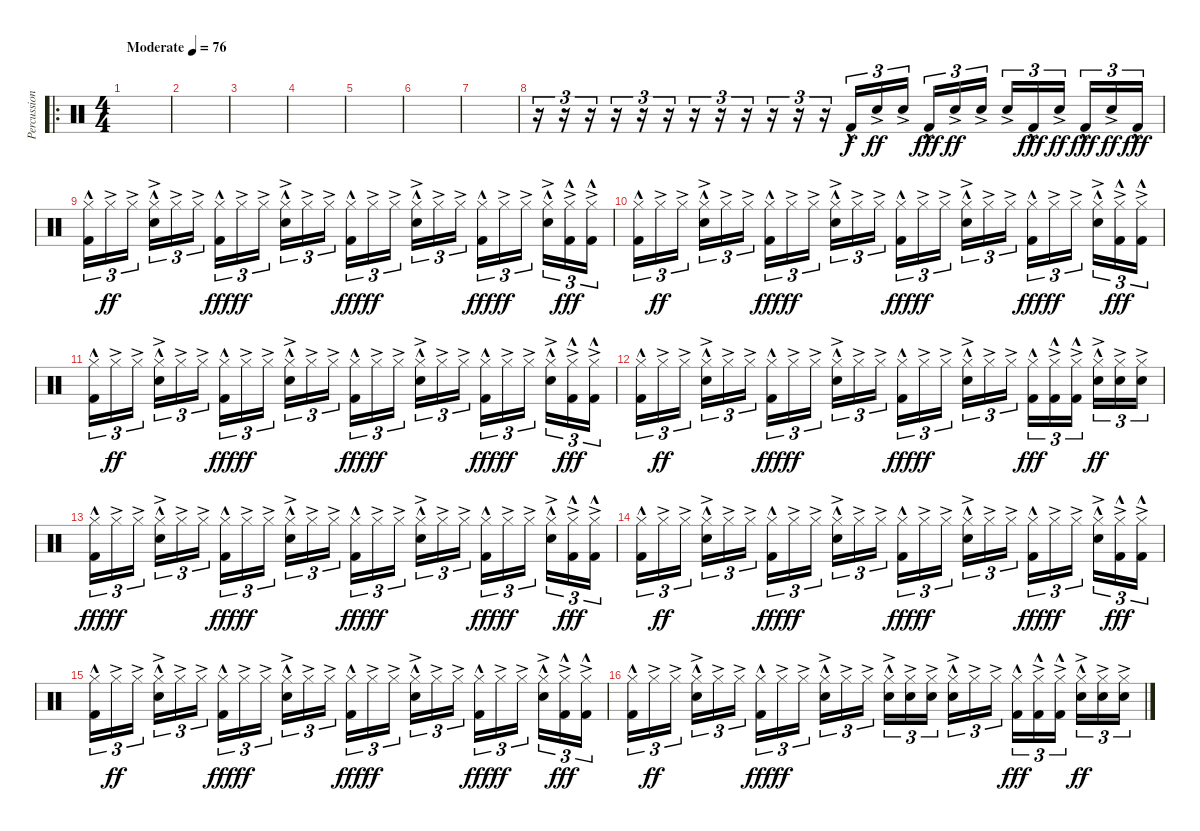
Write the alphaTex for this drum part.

\track ("Percussion" "Percussion") {instrument percussion}
\staff {score}
\articulation defaults
\ro
\ts (4 4)
\tempo (76 "Moderate")
\clef neutral
\ks c
|
|
|
|
|
|
|
r.16{tu (3 2)} r.16{tu (3 2)} r.16{tu (3 2)} r.16{tu (3 2)} r.16{tu (3 2)} r.16{tu (3 2)} r.16{tu (3 2)} r.16{tu (3 2)} r.16{tu (3 2)} r.16{tu (3 2)} r.16{tu (3 2)} r.16{tu (3 2)} "Kick (hit) 2"{hac}.16{tu (3 2)} "Snare (hit) 2"{ac}.16{tu (3 2) dy ff} "Snare (hit) 2"{ac}.16{tu (3 2) beam splitsecondary} "Kick (hit) 2"{hac}.16{tu (3 2) dy fff} "Snare (hit) 2"{ac}.16{tu (3 2) dy ff} "Snare (hit) 2"{ac}.16{tu (3 2)} "Snare (hit) 2"{ac}.16{tu (3 2)} "Kick (hit) 2"{hac}.16{tu (3 2) dy fff} "Snare (hit) 2"{ac}.16{tu (3 2) dy ff beam splitsecondary} "Kick (hit) 2"{hac}.16{tu (3 2) dy fff} "Snare (hit) 2"{ac}.16{tu (3 2) dy ff} "Kick (hit) 2"{hac}.16{tu (3 2) dy fff} |
("Hi-Hat (closed)"{hac} "Kick (hit) 2"{hac}).16{tu (3 2)} "Hi-Hat (closed)"{ac}.16{tu (3 2) dy ff} "Hi-Hat (closed)"{ac}.16{tu (3 2) beam splitsecondary} ("Hi-Hat (closed)"{hac} "Snare (hit) 2"{ac}).16{tu (3 2)} "Hi-Hat (closed)"{ac}.16{tu (3 2)} "Hi-Hat (closed)"{ac}.16{tu (3 2)} ("Hi-Hat (closed)"{hac} "Kick (hit) 2"{hac}).16{tu (3 2) dy fff} "Hi-Hat (closed)"{ac}.16{tu (3 2) dy ff} "Hi-Hat (closed)"{ac}.16{tu (3 2) beam splitsecondary} ("Hi-Hat (closed)"{hac} "Snare (hit) 2"{ac}).16{tu (3 2)} "Hi-Hat (closed)"{ac}.16{tu (3 2)} "Hi-Hat (closed)"{ac}.16{tu (3 2)} ("Hi-Hat (closed)"{hac} "Kick (hit) 2"{hac}).16{tu (3 2) dy fff} "Hi-Hat (closed)"{ac}.16{tu (3 2) dy ff} "Hi-Hat (closed)"{ac}.16{tu (3 2) beam splitsecondary} ("Hi-Hat (closed)"{hac} "Snare (hit) 2"{ac}).16{tu (3 2)} "Hi-Hat (closed)"{ac}.16{tu (3 2)} "Hi-Hat (closed)"{ac}.16{tu (3 2)} ("Hi-Hat (closed)"{hac} "Kick (hit) 2"{hac}).16{tu (3 2) dy fff} "Hi-Hat (closed)"{ac}.16{tu (3 2) dy ff} "Hi-Hat (closed)"{ac}.16{tu (3 2) beam splitsecondary} ("Hi-Hat (closed)"{hac} "Snare (hit) 2"{ac}).16{tu (3 2)} ("Hi-Hat (closed)"{ac} "Kick (hit) 2"{hac}).16{tu (3 2) dy fff} ("Hi-Hat (closed)"{ac} "Kick (hit) 2"{hac}).16{tu (3 2)} |
("Hi-Hat (closed)"{hac} "Kick (hit) 2"{hac}).16{tu (3 2)} "Hi-Hat (closed)"{ac}.16{tu (3 2) dy ff} "Hi-Hat (closed)"{ac}.16{tu (3 2) beam splitsecondary} ("Hi-Hat (closed)"{hac} "Snare (hit) 2"{ac}).16{tu (3 2)} "Hi-Hat (closed)"{ac}.16{tu (3 2)} "Hi-Hat (closed)"{ac}.16{tu (3 2)} ("Hi-Hat (closed)"{hac} "Kick (hit) 2"{hac}).16{tu (3 2) dy fff} "Hi-Hat (closed)"{ac}.16{tu (3 2) dy ff} "Hi-Hat (closed)"{ac}.16{tu (3 2) beam splitsecondary} ("Hi-Hat (closed)"{hac} "Snare (hit) 2"{ac}).16{tu (3 2)} "Hi-Hat (closed)"{ac}.16{tu (3 2)} "Hi-Hat (closed)"{ac}.16{tu (3 2)} ("Hi-Hat (closed)"{hac} "Kick (hit) 2"{hac}).16{tu (3 2) dy fff} "Hi-Hat (closed)"{ac}.16{tu (3 2) dy ff} "Hi-Hat (closed)"{ac}.16{tu (3 2) beam splitsecondary} ("Hi-Hat (closed)"{hac} "Snare (hit) 2"{ac}).16{tu (3 2)} "Hi-Hat (closed)"{ac}.16{tu (3 2)} "Hi-Hat (closed)"{ac}.16{tu (3 2)} ("Hi-Hat (closed)"{hac} "Kick (hit) 2"{hac}).16{tu (3 2) dy fff} "Hi-Hat (closed)"{ac}.16{tu (3 2) dy ff} "Hi-Hat (closed)"{ac}.16{tu (3 2) beam splitsecondary} ("Hi-Hat (closed)"{hac} "Snare (hit) 2"{ac}).16{tu (3 2)} ("Hi-Hat (closed)"{ac} "Kick (hit) 2"{hac}).16{tu (3 2) dy fff} ("Hi-Hat (closed)"{ac} "Kick (hit) 2"{hac}).16{tu (3 2)} |
("Hi-Hat (closed)"{hac} "Kick (hit) 2"{hac}).16{tu (3 2)} "Hi-Hat (closed)"{ac}.16{tu (3 2) dy ff} "Hi-Hat (closed)"{ac}.16{tu (3 2) beam splitsecondary} ("Hi-Hat (closed)"{hac} "Snare (hit) 2"{ac}).16{tu (3 2)} "Hi-Hat (closed)"{ac}.16{tu (3 2)} "Hi-Hat (closed)"{ac}.16{tu (3 2)} ("Hi-Hat (closed)"{hac} "Kick (hit) 2"{hac}).16{tu (3 2) dy fff} "Hi-Hat (closed)"{ac}.16{tu (3 2) dy ff} "Hi-Hat (closed)"{ac}.16{tu (3 2) beam splitsecondary} ("Hi-Hat (closed)"{hac} "Snare (hit) 2"{ac}).16{tu (3 2)} "Hi-Hat (closed)"{ac}.16{tu (3 2)} "Hi-Hat (closed)"{ac}.16{tu (3 2)} ("Hi-Hat (closed)"{hac} "Kick (hit) 2"{hac}).16{tu (3 2) dy fff} "Hi-Hat (closed)"{ac}.16{tu (3 2) dy ff} "Hi-Hat (closed)"{ac}.16{tu (3 2) beam splitsecondary} ("Hi-Hat (closed)"{hac} "Snare (hit) 2"{ac}).16{tu (3 2)} "Hi-Hat (closed)"{ac}.16{tu (3 2)} "Hi-Hat (closed)"{ac}.16{tu (3 2)} ("Hi-Hat (closed)"{hac} "Kick (hit) 2"{hac}).16{tu (3 2) dy fff} "Hi-Hat (closed)"{ac}.16{tu (3 2) dy ff} "Hi-Hat (closed)"{ac}.16{tu (3 2) beam splitsecondary} ("Hi-Hat (closed)"{hac} "Snare (hit) 2"{ac}).16{tu (3 2)} ("Hi-Hat (closed)"{ac} "Kick (hit) 2"{hac}).16{tu (3 2) dy fff} ("Hi-Hat (closed)"{ac} "Kick (hit) 2"{hac}).16{tu (3 2)} |
("Hi-Hat (closed)"{hac} "Kick (hit) 2"{hac}).16{tu (3 2)} "Hi-Hat (closed)"{ac}.16{tu (3 2) dy ff} "Hi-Hat (closed)"{ac}.16{tu (3 2) beam splitsecondary} ("Hi-Hat (closed)"{hac} "Snare (hit) 2"{ac}).16{tu (3 2)} "Hi-Hat (closed)"{ac}.16{tu (3 2)} "Hi-Hat (closed)"{ac}.16{tu (3 2)} ("Hi-Hat (closed)"{hac} "Kick (hit) 2"{hac}).16{tu (3 2) dy fff} "Hi-Hat (closed)"{ac}.16{tu (3 2) dy ff} "Hi-Hat (closed)"{ac}.16{tu (3 2) beam splitsecondary} ("Hi-Hat (closed)"{hac} "Snare (hit) 2"{ac}).16{tu (3 2)} "Hi-Hat (closed)"{ac}.16{tu (3 2)} "Hi-Hat (closed)"{ac}.16{tu (3 2)} ("Hi-Hat (closed)"{hac} "Kick (hit) 2"{hac}).16{tu (3 2) dy fff} "Hi-Hat (closed)"{ac}.16{tu (3 2) dy ff} "Hi-Hat (closed)"{ac}.16{tu (3 2) beam splitsecondary} ("Hi-Hat (closed)"{hac} "Snare (hit) 2"{ac}).16{tu (3 2)} "Hi-Hat (closed)"{ac}.16{tu (3 2)} "Hi-Hat (closed)"{ac}.16{tu (3 2)} ("Hi-Hat (closed)"{hac} "Kick (hit) 2"{hac}).16{tu (3 2) dy fff} ("Hi-Hat (closed)"{ac} "Kick (hit) 2"{hac}).16{tu (3 2)} ("Hi-Hat (closed)"{ac} "Kick (hit) 2"{hac}).16{tu (3 2) beam splitsecondary} ("Hi-Hat (closed)"{hac} "Snare (hit) 2"{ac}).16{tu (3 2) dy ff} ("Hi-Hat (closed)"{ac} "Snare (hit) 2"{ac}).16{tu (3 2)} ("Hi-Hat (closed)"{ac} "Snare (hit) 2"{ac}).16{tu (3 2)} |
("Hi-Hat (closed)"{hac} "Kick (hit) 2"{hac}).16{tu (3 2) dy fff} "Hi-Hat (closed)"{ac}.16{tu (3 2) dy ff} "Hi-Hat (closed)"{ac}.16{tu (3 2) beam splitsecondary} ("Hi-Hat (closed)"{hac} "Snare (hit) 2"{ac}).16{tu (3 2)} "Hi-Hat (closed)"{ac}.16{tu (3 2)} "Hi-Hat (closed)"{ac}.16{tu (3 2)} ("Hi-Hat (closed)"{hac} "Kick (hit) 2"{hac}).16{tu (3 2) dy fff} "Hi-Hat (closed)"{ac}.16{tu (3 2) dy ff} "Hi-Hat (closed)"{ac}.16{tu (3 2) beam splitsecondary} ("Hi-Hat (closed)"{hac} "Snare (hit) 2"{ac}).16{tu (3 2)} "Hi-Hat (closed)"{ac}.16{tu (3 2)} "Hi-Hat (closed)"{ac}.16{tu (3 2)} ("Hi-Hat (closed)"{hac} "Kick (hit) 2"{hac}).16{tu (3 2) dy fff} "Hi-Hat (closed)"{ac}.16{tu (3 2) dy ff} "Hi-Hat (closed)"{ac}.16{tu (3 2) beam splitsecondary} ("Hi-Hat (closed)"{hac} "Snare (hit) 2"{ac}).16{tu (3 2)} "Hi-Hat (closed)"{ac}.16{tu (3 2)} "Hi-Hat (closed)"{ac}.16{tu (3 2)} ("Hi-Hat (closed)"{hac} "Kick (hit) 2"{hac}).16{tu (3 2) dy fff} "Hi-Hat (closed)"{ac}.16{tu (3 2) dy ff} "Hi-Hat (closed)"{ac}.16{tu (3 2) beam splitsecondary} ("Hi-Hat (closed)"{hac} "Snare (hit) 2"{ac}).16{tu (3 2)} ("Hi-Hat (closed)"{ac} "Kick (hit) 2"{hac}).16{tu (3 2) dy fff} ("Hi-Hat (closed)"{ac} "Kick (hit) 2"{hac}).16{tu (3 2)} |
("Hi-Hat (closed)"{hac} "Kick (hit) 2"{hac}).16{tu (3 2)} "Hi-Hat (closed)"{ac}.16{tu (3 2) dy ff} "Hi-Hat (closed)"{ac}.16{tu (3 2) beam splitsecondary} ("Hi-Hat (closed)"{hac} "Snare (hit) 2"{ac}).16{tu (3 2)} "Hi-Hat (closed)"{ac}.16{tu (3 2)} "Hi-Hat (closed)"{ac}.16{tu (3 2)} ("Hi-Hat (closed)"{hac} "Kick (hit) 2"{hac}).16{tu (3 2) dy fff} "Hi-Hat (closed)"{ac}.16{tu (3 2) dy ff} "Hi-Hat (closed)"{ac}.16{tu (3 2) beam splitsecondary} ("Hi-Hat (closed)"{hac} "Snare (hit) 2"{ac}).16{tu (3 2)} "Hi-Hat (closed)"{ac}.16{tu (3 2)} "Hi-Hat (closed)"{ac}.16{tu (3 2)} ("Hi-Hat (closed)"{hac} "Kick (hit) 2"{hac}).16{tu (3 2) dy fff} "Hi-Hat (closed)"{ac}.16{tu (3 2) dy ff} "Hi-Hat (closed)"{ac}.16{tu (3 2) beam splitsecondary} ("Hi-Hat (closed)"{hac} "Snare (hit) 2"{ac}).16{tu (3 2)} "Hi-Hat (closed)"{ac}.16{tu (3 2)} "Hi-Hat (closed)"{ac}.16{tu (3 2)} ("Hi-Hat (closed)"{hac} "Kick (hit) 2"{hac}).16{tu (3 2) dy fff} "Hi-Hat (closed)"{ac}.16{tu (3 2) dy ff} "Hi-Hat (closed)"{ac}.16{tu (3 2) beam splitsecondary} ("Hi-Hat (closed)"{hac} "Snare (hit) 2"{ac}).16{tu (3 2)} ("Hi-Hat (closed)"{ac} "Kick (hit) 2"{hac}).16{tu (3 2) dy fff} ("Hi-Hat (closed)"{ac} "Kick (hit) 2"{hac}).16{tu (3 2)} |
("Hi-Hat (closed)"{hac} "Kick (hit) 2"{hac}).16{tu (3 2)} "Hi-Hat (closed)"{ac}.16{tu (3 2) dy ff} "Hi-Hat (closed)"{ac}.16{tu (3 2) beam splitsecondary} ("Hi-Hat (closed)"{hac} "Snare (hit) 2"{ac}).16{tu (3 2)} "Hi-Hat (closed)"{ac}.16{tu (3 2)} "Hi-Hat (closed)"{ac}.16{tu (3 2)} ("Hi-Hat (closed)"{hac} "Kick (hit) 2"{hac}).16{tu (3 2) dy fff} "Hi-Hat (closed)"{ac}.16{tu (3 2) dy ff} "Hi-Hat (closed)"{ac}.16{tu (3 2) beam splitsecondary} ("Hi-Hat (closed)"{hac} "Snare (hit) 2"{ac}).16{tu (3 2)} "Hi-Hat (closed)"{ac}.16{tu (3 2)} "Hi-Hat (closed)"{ac}.16{tu (3 2)} ("Hi-Hat (closed)"{hac} "Kick (hit) 2"{hac}).16{tu (3 2) dy fff} "Hi-Hat (closed)"{ac}.16{tu (3 2) dy ff} "Hi-Hat (closed)"{ac}.16{tu (3 2) beam splitsecondary} ("Hi-Hat (closed)"{hac} "Snare (hit) 2"{ac}).16{tu (3 2)} "Hi-Hat (closed)"{ac}.16{tu (3 2)} "Hi-Hat (closed)"{ac}.16{tu (3 2)} ("Hi-Hat (closed)"{hac} "Kick (hit) 2"{hac}).16{tu (3 2) dy fff} "Hi-Hat (closed)"{ac}.16{tu (3 2) dy ff} "Hi-Hat (closed)"{ac}.16{tu (3 2) beam splitsecondary} ("Hi-Hat (closed)"{hac} "Snare (hit) 2"{ac}).16{tu (3 2)} ("Hi-Hat (closed)"{ac} "Kick (hit) 2"{hac}).16{tu (3 2) dy fff} ("Hi-Hat (closed)"{ac} "Kick (hit) 2"{hac}).16{tu (3 2)} |
("Hi-Hat (closed)"{hac} "Kick (hit) 2"{hac}).16{tu (3 2)} "Hi-Hat (closed)"{ac}.16{tu (3 2) dy ff} "Hi-Hat (closed)"{ac}.16{tu (3 2) beam splitsecondary} ("Hi-Hat (closed)"{hac} "Snare (hit) 2"{ac}).16{tu (3 2)} "Hi-Hat (closed)"{ac}.16{tu (3 2)} "Hi-Hat (closed)"{ac}.16{tu (3 2)} ("Hi-Hat (closed)"{hac} "Kick (hit) 2"{hac}).16{tu (3 2) dy fff} "Hi-Hat (closed)"{ac}.16{tu (3 2) dy ff} "Hi-Hat (closed)"{ac}.16{tu (3 2) beam splitsecondary} ("Hi-Hat (closed)"{hac} "Snare (hit) 2"{ac}).16{tu (3 2)} "Hi-Hat (closed)"{ac}.16{tu (3 2)} "Hi-Hat (closed)"{ac}.16{tu (3 2)} ("Hi-Hat (closed)"{hac} "Snare (hit) 2"{ac}).16{tu (3 2)} ("Hi-Hat (closed)"{ac} "Snare (hit) 2"{ac}).16{tu (3 2)} ("Hi-Hat (closed)"{ac} "Snare (hit) 2"{ac}).16{tu (3 2) beam splitsecondary} ("Hi-Hat (closed)"{hac} "Snare (hit) 2"{ac}).16{tu (3 2)} "Hi-Hat (closed)"{ac}.16{tu (3 2)} "Hi-Hat (closed)"{ac}.16{tu (3 2)} ("Hi-Hat (closed)"{hac} "Kick (hit) 2"{hac}).16{tu (3 2) dy fff} ("Hi-Hat (closed)"{ac} "Kick (hit) 2"{hac}).16{tu (3 2)} ("Hi-Hat (closed)"{ac} "Kick (hit) 2"{hac}).16{tu (3 2) beam splitsecondary} ("Hi-Hat (closed)"{hac} "Snare (hit) 2"{ac}).16{tu (3 2) dy ff} ("Hi-Hat (closed)"{ac} "Snare (hit) 2"{ac}).16{tu (3 2)} ("Hi-Hat (closed)"{ac} "Snare (hit) 2"{ac}).16{tu (3 2)}
